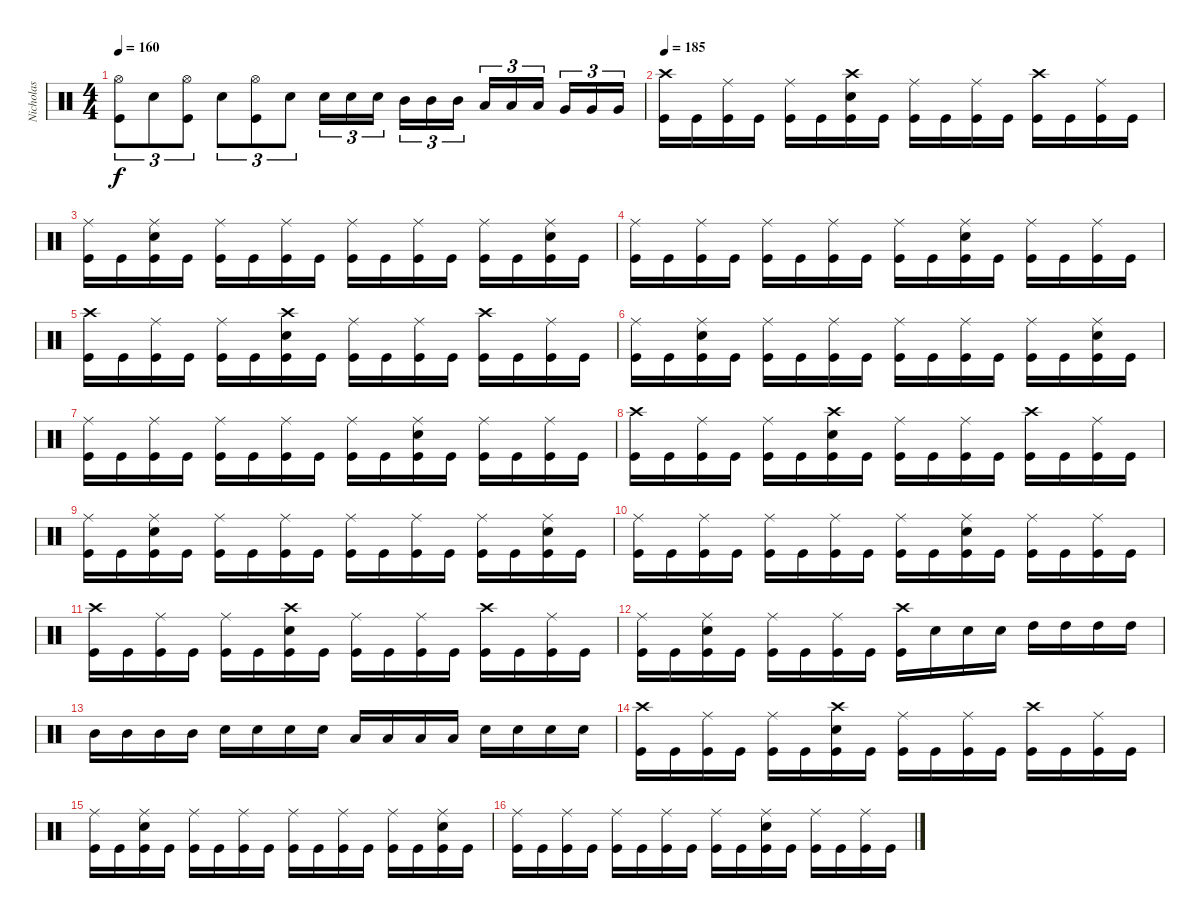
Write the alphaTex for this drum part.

\track ("Nicholas" "Nicholas") {instrument percussion}
\staff {score}
\articulation defaults
\ts (4 4)
\tempo 160
\clef neutral
\ks c
("Hi-Hat (open)" "Kick (hit)").8{tu (3 2) dy f} "Electric Snare (hit)".8{tu (3 2)} ("Hi-Hat (open)" "Kick (hit)").8{tu (3 2)} "Electric Snare (hit)".8{tu (3 2)} ("Hi-Hat (open)" "Kick (hit)").8{tu (3 2)} "Electric Snare (hit)".8{tu (3 2)} "Electric Snare (hit)".16{tu (3 2)} "Electric Snare (hit)".16{tu (3 2)} "Electric Snare (hit)".16{tu (3 2)} "Mid Tom (hit)".16{tu (3 2)} "Mid Tom (hit)".16{tu (3 2)} "Mid Tom (hit)".16{tu (3 2)} "Low Tom (hit)".16{tu (3 2)} "Low Tom (hit)".16{tu (3 2)} "Low Tom (hit)".16{tu (3 2)} "Very Low Tom (hit)".16{tu (3 2)} "Very Low Tom (hit)".16{tu (3 2)} "Very Low Tom (hit)".16{tu (3 2)} |
\tempo 185
("Crash high (hit)" "Kick (hit)").16 "Kick (hit)".16 ("Ride (middle)" "Kick (hit)").16 "Kick (hit)".16 ("Ride (middle)" "Kick (hit)").16 "Kick (hit)".16 ("Crash high (hit)" "Electric Snare (hit)" "Kick (hit)").16 "Kick (hit)".16 ("Ride (middle)" "Kick (hit)").16 "Kick (hit)".16 ("Ride (middle)" "Kick (hit)").16 "Kick (hit)".16 ("Crash high (hit)" "Kick (hit)").16 "Kick (hit)".16 ("Ride (middle)" "Kick (hit)").16 "Kick (hit)".16 |
("Ride (middle)" "Kick (hit)").16 "Kick (hit)".16 ("Ride (middle)" "Electric Snare (hit)" "Kick (hit)").16 "Kick (hit)".16 ("Ride (middle)" "Kick (hit)").16 "Kick (hit)".16 ("Ride (middle)" "Kick (hit)").16 "Kick (hit)".16 ("Ride (middle)" "Kick (hit)").16 "Kick (hit)".16 ("Ride (middle)" "Kick (hit)").16 "Kick (hit)".16 ("Ride (middle)" "Kick (hit)").16 "Kick (hit)".16 ("Ride (middle)" "Electric Snare (hit)" "Kick (hit)").16 "Kick (hit)".16 |
("Ride (middle)" "Kick (hit)").16 "Kick (hit)".16 ("Ride (middle)" "Kick (hit)").16 "Kick (hit)".16 ("Ride (middle)" "Kick (hit)").16 "Kick (hit)".16 ("Ride (middle)" "Kick (hit)").16 "Kick (hit)".16 ("Ride (middle)" "Kick (hit)").16 "Kick (hit)".16 ("Ride (middle)" "Electric Snare (hit)" "Kick (hit)").16 "Kick (hit)".16 ("Ride (middle)" "Kick (hit)").16 "Kick (hit)".16 ("Ride (middle)" "Kick (hit)").16 "Kick (hit)".16 |
("Crash high (hit)" "Kick (hit)").16 "Kick (hit)".16 ("Ride (middle)" "Kick (hit)").16 "Kick (hit)".16 ("Ride (middle)" "Kick (hit)").16 "Kick (hit)".16 ("Crash high (hit)" "Electric Snare (hit)" "Kick (hit)").16 "Kick (hit)".16 ("Ride (middle)" "Kick (hit)").16 "Kick (hit)".16 ("Ride (middle)" "Kick (hit)").16 "Kick (hit)".16 ("Crash high (hit)" "Kick (hit)").16 "Kick (hit)".16 ("Ride (middle)" "Kick (hit)").16 "Kick (hit)".16 |
("Ride (middle)" "Kick (hit)").16 "Kick (hit)".16 ("Ride (middle)" "Electric Snare (hit)" "Kick (hit)").16 "Kick (hit)".16 ("Ride (middle)" "Kick (hit)").16 "Kick (hit)".16 ("Ride (middle)" "Kick (hit)").16 "Kick (hit)".16 ("Ride (middle)" "Kick (hit)").16 "Kick (hit)".16 ("Ride (middle)" "Kick (hit)").16 "Kick (hit)".16 ("Ride (middle)" "Kick (hit)").16 "Kick (hit)".16 ("Ride (middle)" "Electric Snare (hit)" "Kick (hit)").16 "Kick (hit)".16 |
("Ride (middle)" "Kick (hit)").16 "Kick (hit)".16 ("Ride (middle)" "Kick (hit)").16 "Kick (hit)".16 ("Ride (middle)" "Kick (hit)").16 "Kick (hit)".16 ("Ride (middle)" "Kick (hit)").16 "Kick (hit)".16 ("Ride (middle)" "Kick (hit)").16 "Kick (hit)".16 ("Ride (middle)" "Electric Snare (hit)" "Kick (hit)").16 "Kick (hit)".16 ("Ride (middle)" "Kick (hit)").16 "Kick (hit)".16 ("Ride (middle)" "Kick (hit)").16 "Kick (hit)".16 |
("Crash high (hit)" "Kick (hit)").16 "Kick (hit)".16 ("Ride (middle)" "Kick (hit)").16 "Kick (hit)".16 ("Ride (middle)" "Kick (hit)").16 "Kick (hit)".16 ("Crash high (hit)" "Electric Snare (hit)" "Kick (hit)").16 "Kick (hit)".16 ("Ride (middle)" "Kick (hit)").16 "Kick (hit)".16 ("Ride (middle)" "Kick (hit)").16 "Kick (hit)".16 ("Crash high (hit)" "Kick (hit)").16 "Kick (hit)".16 ("Ride (middle)" "Kick (hit)").16 "Kick (hit)".16 |
("Ride (middle)" "Kick (hit)").16 "Kick (hit)".16 ("Ride (middle)" "Electric Snare (hit)" "Kick (hit)").16 "Kick (hit)".16 ("Ride (middle)" "Kick (hit)").16 "Kick (hit)".16 ("Ride (middle)" "Kick (hit)").16 "Kick (hit)".16 ("Ride (middle)" "Kick (hit)").16 "Kick (hit)".16 ("Ride (middle)" "Kick (hit)").16 "Kick (hit)".16 ("Ride (middle)" "Kick (hit)").16 "Kick (hit)".16 ("Ride (middle)" "Electric Snare (hit)" "Kick (hit)").16 "Kick (hit)".16 |
("Ride (middle)" "Kick (hit)").16 "Kick (hit)".16 ("Ride (middle)" "Kick (hit)").16 "Kick (hit)".16 ("Ride (middle)" "Kick (hit)").16 "Kick (hit)".16 ("Ride (middle)" "Kick (hit)").16 "Kick (hit)".16 ("Ride (middle)" "Kick (hit)").16 "Kick (hit)".16 ("Ride (middle)" "Electric Snare (hit)" "Kick (hit)").16 "Kick (hit)".16 ("Ride (middle)" "Kick (hit)").16 "Kick (hit)".16 ("Ride (middle)" "Kick (hit)").16 "Kick (hit)".16 |
("Crash high (hit)" "Kick (hit)").16 "Kick (hit)".16 ("Ride (middle)" "Kick (hit)").16 "Kick (hit)".16 ("Ride (middle)" "Kick (hit)").16 "Kick (hit)".16 ("Crash high (hit)" "Electric Snare (hit)" "Kick (hit)").16 "Kick (hit)".16 ("Ride (middle)" "Kick (hit)").16 "Kick (hit)".16 ("Ride (middle)" "Kick (hit)").16 "Kick (hit)".16 ("Crash high (hit)" "Kick (hit)").16 "Kick (hit)".16 ("Ride (middle)" "Kick (hit)").16 "Kick (hit)".16 |
("Ride (middle)" "Kick (hit)").16 "Kick (hit)".16 ("Ride (middle)" "Electric Snare (hit)" "Kick (hit)").16 "Kick (hit)".16 ("Ride (middle)" "Kick (hit)").16 "Kick (hit)".16 ("Ride (middle)" "Kick (hit)").16 "Kick (hit)".16 ("Crash high (hit)" "Kick (hit)").16 "Electric Snare (hit)".16 "Electric Snare (hit)".16 "Electric Snare (hit)".16 "High Tom (hit)".16 "High Tom (hit)".16 "High Tom (hit)".16 "High Tom (hit)".16 |
"Mid Tom (hit)".16 "Mid Tom (hit)".16 "Mid Tom (hit)".16 "Mid Tom (hit)".16 "Electric Snare (hit)".16 "Electric Snare (hit)".16 "Electric Snare (hit)".16 "Electric Snare (hit)".16 "Low Tom (hit)".16 "Low Tom (hit)".16 "Low Tom (hit)".16 "Low Tom (hit)".16 "Electric Snare (hit)".16 "Electric Snare (hit)".16 "Electric Snare (hit)".16 "Electric Snare (hit)".16 |
("Crash high (hit)" "Kick (hit)").16 "Kick (hit)".16 ("Ride (middle)" "Kick (hit)").16 "Kick (hit)".16 ("Ride (middle)" "Kick (hit)").16 "Kick (hit)".16 ("Crash high (hit)" "Electric Snare (hit)" "Kick (hit)").16 "Kick (hit)".16 ("Ride (middle)" "Kick (hit)").16 "Kick (hit)".16 ("Ride (middle)" "Kick (hit)").16 "Kick (hit)".16 ("Crash high (hit)" "Kick (hit)").16 "Kick (hit)".16 ("Ride (middle)" "Kick (hit)").16 "Kick (hit)".16 |
("Ride (middle)" "Kick (hit)").16 "Kick (hit)".16 ("Ride (middle)" "Electric Snare (hit)" "Kick (hit)").16 "Kick (hit)".16 ("Ride (middle)" "Kick (hit)").16 "Kick (hit)".16 ("Ride (middle)" "Kick (hit)").16 "Kick (hit)".16 ("Ride (middle)" "Kick (hit)").16 "Kick (hit)".16 ("Ride (middle)" "Kick (hit)").16 "Kick (hit)".16 ("Ride (middle)" "Kick (hit)").16 "Kick (hit)".16 ("Ride (middle)" "Electric Snare (hit)" "Kick (hit)").16 "Kick (hit)".16 |
("Ride (middle)" "Kick (hit)").16 "Kick (hit)".16 ("Ride (middle)" "Kick (hit)").16 "Kick (hit)".16 ("Ride (middle)" "Kick (hit)").16 "Kick (hit)".16 ("Ride (middle)" "Kick (hit)").16 "Kick (hit)".16 ("Ride (middle)" "Kick (hit)").16 "Kick (hit)".16 ("Ride (middle)" "Electric Snare (hit)" "Kick (hit)").16 "Kick (hit)".16 ("Ride (middle)" "Kick (hit)").16 "Kick (hit)".16 ("Ride (middle)" "Kick (hit)").16 "Kick (hit)".16
